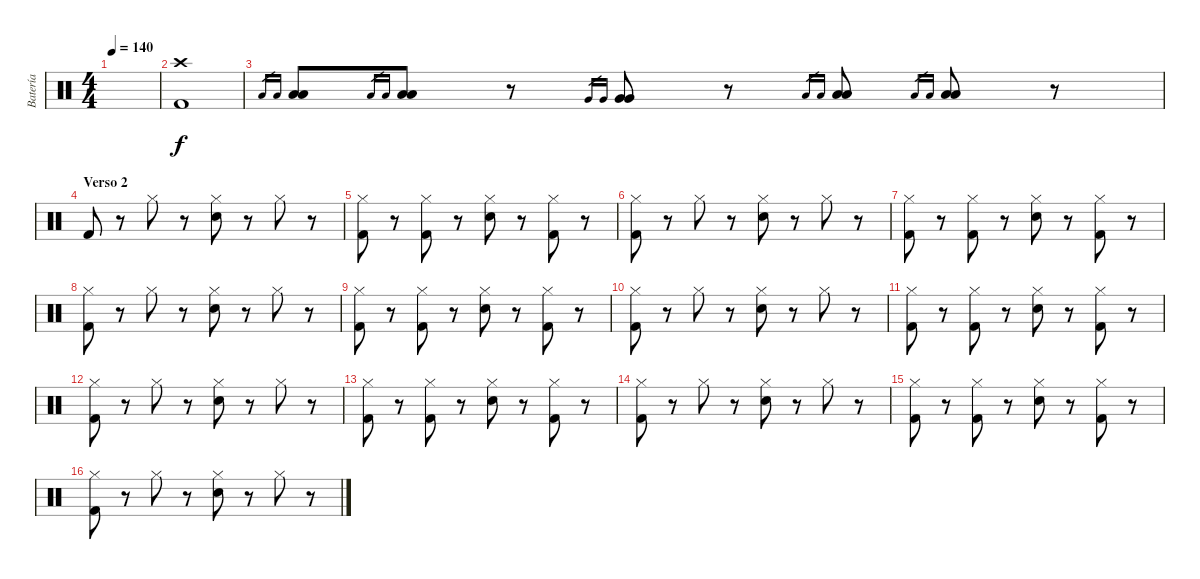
\track ("Batería" "Batería") {instrument percussion}
\staff {score}
\articulation defaults
\ts (4 4)
\tempo 140
\clef neutral
\ks c
|
("Crash high (hit)" "Kick (hit) 2").1 |
"Low Tom (hit)".16{gr} "Low Tom (hit)".16{gr} ("Low Tom (hit)" "Low Tom (hit)").8 "Low Tom (hit)".16{gr} "Low Tom (hit)".16{gr} ("Low Tom (hit)" "Low Tom (hit)").8 r.8 "Very Low Tom (hit)".16{gr} "Very Low Tom (hit)".16{gr} ("Very Low Tom (hit)" "Very Low Tom (hit)").8 r.8 "Low Floor Tom (hit)".16{gr} "Low Floor Tom (hit)".16{gr} ("Low Floor Tom (hit)" "Low Floor Tom (hit)").8 "Low Floor Tom (hit)".16{gr} "Low Floor Tom (hit)".16{gr} ("Low Floor Tom (hit)" "Low Floor Tom (hit)").8 r.8 |
\section ("" "Verso 2")
"Kick (hit) 2".8 r.8 "Hi-Hat (closed)".8 r.8 ("Hi-Hat (closed)" "Snare (hit) 2").8 r.8 "Hi-Hat (closed)".8 r.8 |
("Hi-Hat (closed)" "Kick (hit) 2").8 r.8 ("Hi-Hat (closed)" "Kick (hit) 2").8 r.8 ("Hi-Hat (closed)" "Snare (hit) 2").8 r.8 ("Hi-Hat (closed)" "Kick (hit) 2").8 r.8 |
("Hi-Hat (closed)" "Kick (hit) 2").8 r.8 "Hi-Hat (closed)".8 r.8 ("Hi-Hat (closed)" "Snare (hit) 2").8 r.8 "Hi-Hat (closed)".8 r.8 |
("Hi-Hat (closed)" "Kick (hit) 2").8 r.8 ("Hi-Hat (closed)" "Kick (hit) 2").8 r.8 ("Hi-Hat (closed)" "Snare (hit) 2").8 r.8 ("Hi-Hat (closed)" "Kick (hit) 2").8 r.8 |
("Hi-Hat (closed)" "Kick (hit) 2").8 r.8 "Hi-Hat (closed)".8 r.8 ("Hi-Hat (closed)" "Snare (hit) 2").8 r.8 "Hi-Hat (closed)".8 r.8 |
("Hi-Hat (closed)" "Kick (hit) 2").8 r.8 ("Hi-Hat (closed)" "Kick (hit) 2").8 r.8 ("Hi-Hat (closed)" "Snare (hit) 2").8 r.8 ("Hi-Hat (closed)" "Kick (hit) 2").8 r.8 |
("Hi-Hat (closed)" "Kick (hit) 2").8 r.8 "Hi-Hat (closed)".8 r.8 ("Hi-Hat (closed)" "Snare (hit) 2").8 r.8 "Hi-Hat (closed)".8 r.8 |
("Hi-Hat (closed)" "Kick (hit) 2").8 r.8 ("Hi-Hat (closed)" "Kick (hit) 2").8 r.8 ("Hi-Hat (closed)" "Snare (hit) 2").8 r.8 ("Hi-Hat (closed)" "Kick (hit) 2").8 r.8 |
("Hi-Hat (closed)" "Kick (hit) 2").8 r.8 "Hi-Hat (closed)".8 r.8 ("Hi-Hat (closed)" "Snare (hit) 2").8 r.8 "Hi-Hat (closed)".8 r.8 |
("Hi-Hat (closed)" "Kick (hit) 2").8 r.8 ("Hi-Hat (closed)" "Kick (hit) 2").8 r.8 ("Hi-Hat (closed)" "Snare (hit) 2").8 r.8 ("Hi-Hat (closed)" "Kick (hit) 2").8 r.8 |
("Hi-Hat (closed)" "Kick (hit) 2").8 r.8 "Hi-Hat (closed)".8 r.8 ("Hi-Hat (closed)" "Snare (hit) 2").8 r.8 "Hi-Hat (closed)".8 r.8 |
("Hi-Hat (closed)" "Kick (hit) 2").8 r.8 ("Hi-Hat (closed)" "Kick (hit) 2").8 r.8 ("Hi-Hat (closed)" "Snare (hit) 2").8 r.8 ("Hi-Hat (closed)" "Kick (hit) 2").8 r.8 |
("Hi-Hat (closed)" "Kick (hit) 2").8 r.8 "Hi-Hat (closed)".8 r.8 ("Hi-Hat (closed)" "Snare (hit) 2").8 r.8 "Hi-Hat (closed)".8 r.8
